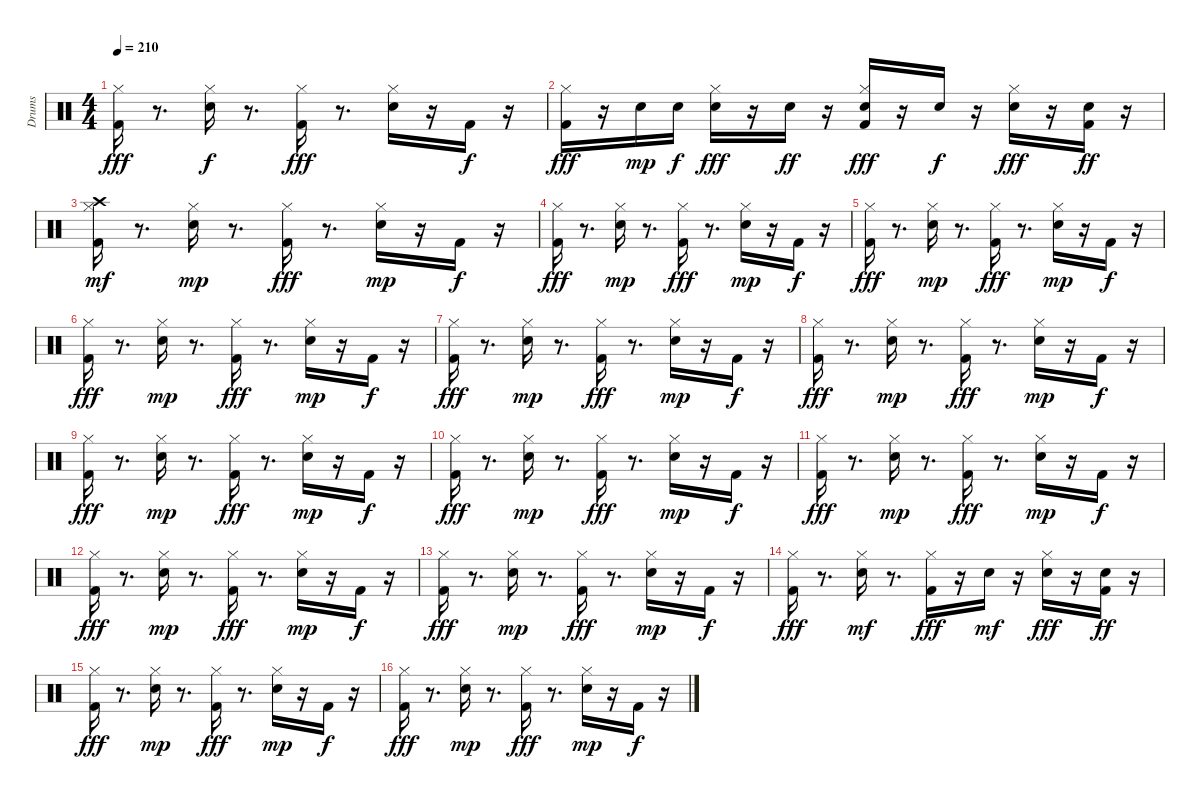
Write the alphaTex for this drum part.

\track ("Drums " "Drums ") {instrument percussion}
\staff {score}
\articulation defaults
\ts (4 4)
\tempo 210
\clef neutral
\ks c
("Kick (hit) 2" "Hi-Hat (closed)").16{dy fff} r.8{d} ("Snare (hit) 2" "Hi-Hat (closed)").16{dy f} r.8{d} ("Kick (hit) 2" "Hi-Hat (closed)").16{dy fff} r.8{d} ("Snare (hit) 2" "Hi-Hat (closed)").16 r.16 "Kick (hit) 2".16{dy f} r.16 |
("Kick (hit) 2" "Hi-Hat (closed)").16{dy fff} r.16 "Snare (hit) 2".16{dy mp} "Snare (hit) 2".16{dy f} ("Snare (hit) 2" "Hi-Hat (closed)").16{dy fff} r.16 "Snare (hit) 2".16{dy ff} r.16 ("Kick (hit) 2" "Snare (hit) 2" "Hi-Hat (closed)").16{dy fff} r.16 "Snare (hit) 2".16{dy f} r.16 ("Snare (hit) 2" "Hi-Hat (closed)").16{dy fff} r.16 ("Kick (hit) 2" "Snare (hit) 2").16{dy ff} r.16 |
("Kick (hit) 2" "Hi-Hat (closed)" "Crash high (hit)").16{dy mf} r.8{d} ("Snare (hit) 2" "Hi-Hat (closed)").16{dy mp} r.8{d} ("Kick (hit) 2" "Hi-Hat (closed)").16{dy fff} r.8{d} ("Snare (hit) 2" "Hi-Hat (closed)").16{dy mp} r.16 "Kick (hit) 2".16{dy f} r.16 |
("Kick (hit) 2" "Hi-Hat (closed)").16{dy fff} r.8{d} ("Snare (hit) 2" "Hi-Hat (closed)").16{dy mp} r.8{d} ("Kick (hit) 2" "Hi-Hat (closed)").16{dy fff} r.8{d} ("Snare (hit) 2" "Hi-Hat (closed)").16{dy mp} r.16 "Kick (hit) 2".16{dy f} r.16 |
("Kick (hit) 2" "Hi-Hat (closed)").16{dy fff} r.8{d} ("Snare (hit) 2" "Hi-Hat (closed)").16{dy mp} r.8{d} ("Kick (hit) 2" "Hi-Hat (closed)").16{dy fff} r.8{d} ("Snare (hit) 2" "Hi-Hat (closed)").16{dy mp} r.16 "Kick (hit) 2".16{dy f} r.16 |
("Kick (hit) 2" "Hi-Hat (closed)").16{dy fff} r.8{d} ("Snare (hit) 2" "Hi-Hat (closed)").16{dy mp} r.8{d} ("Kick (hit) 2" "Hi-Hat (closed)").16{dy fff} r.8{d} ("Snare (hit) 2" "Hi-Hat (closed)").16{dy mp} r.16 "Kick (hit) 2".16{dy f} r.16 |
("Kick (hit) 2" "Hi-Hat (closed)").16{dy fff} r.8{d} ("Snare (hit) 2" "Hi-Hat (closed)").16{dy mp} r.8{d} ("Kick (hit) 2" "Hi-Hat (closed)").16{dy fff} r.8{d} ("Snare (hit) 2" "Hi-Hat (closed)").16{dy mp} r.16 "Kick (hit) 2".16{dy f} r.16 |
("Kick (hit) 2" "Hi-Hat (closed)").16{dy fff} r.8{d} ("Snare (hit) 2" "Hi-Hat (closed)").16{dy mp} r.8{d} ("Kick (hit) 2" "Hi-Hat (closed)").16{dy fff} r.8{d} ("Snare (hit) 2" "Hi-Hat (closed)").16{dy mp} r.16 "Kick (hit) 2".16{dy f} r.16 |
("Kick (hit) 2" "Hi-Hat (closed)").16{dy fff} r.8{d} ("Snare (hit) 2" "Hi-Hat (closed)").16{dy mp} r.8{d} ("Kick (hit) 2" "Hi-Hat (closed)").16{dy fff} r.8{d} ("Snare (hit) 2" "Hi-Hat (closed)").16{dy mp} r.16 "Kick (hit) 2".16{dy f} r.16 |
("Kick (hit) 2" "Hi-Hat (closed)").16{dy fff} r.8{d} ("Snare (hit) 2" "Hi-Hat (closed)").16{dy mp} r.8{d} ("Kick (hit) 2" "Hi-Hat (closed)").16{dy fff} r.8{d} ("Snare (hit) 2" "Hi-Hat (closed)").16{dy mp} r.16 "Kick (hit) 2".16{dy f} r.16 |
("Kick (hit) 2" "Hi-Hat (closed)").16{dy fff} r.8{d} ("Snare (hit) 2" "Hi-Hat (closed)").16{dy mp} r.8{d} ("Kick (hit) 2" "Hi-Hat (closed)").16{dy fff} r.8{d} ("Snare (hit) 2" "Hi-Hat (closed)").16{dy mp} r.16 "Kick (hit) 2".16{dy f} r.16 |
("Kick (hit) 2" "Hi-Hat (closed)").16{dy fff} r.8{d} ("Snare (hit) 2" "Hi-Hat (closed)").16{dy mp} r.8{d} ("Kick (hit) 2" "Hi-Hat (closed)").16{dy fff} r.8{d} ("Snare (hit) 2" "Hi-Hat (closed)").16{dy mp} r.16 "Kick (hit) 2".16{dy f} r.16 |
("Kick (hit) 2" "Hi-Hat (closed)").16{dy fff} r.8{d} ("Snare (hit) 2" "Hi-Hat (closed)").16{dy mp} r.8{d} ("Kick (hit) 2" "Hi-Hat (closed)").16{dy fff} r.8{d} ("Snare (hit) 2" "Hi-Hat (closed)").16{dy mp} r.16 "Kick (hit) 2".16{dy f} r.16 |
("Kick (hit) 2" "Hi-Hat (closed)").16{dy fff} r.8{d} ("Snare (hit) 2" "Hi-Hat (closed)").16{dy mf} r.8{d} ("Kick (hit) 2" "Hi-Hat (closed)").16{dy fff} r.16 "Snare (hit) 2".16{dy mf} r.16 ("Snare (hit) 2" "Hi-Hat (closed)").16{dy fff} r.16 ("Kick (hit) 2" "Snare (hit) 2").16{dy ff} r.16 |
("Kick (hit) 2" "Hi-Hat (closed)").16{dy fff} r.8{d} ("Snare (hit) 2" "Hi-Hat (closed)").16{dy mp} r.8{d} ("Kick (hit) 2" "Hi-Hat (closed)").16{dy fff} r.8{d} ("Snare (hit) 2" "Hi-Hat (closed)").16{dy mp} r.16 "Kick (hit) 2".16{dy f} r.16 |
("Kick (hit) 2" "Hi-Hat (closed)").16{dy fff} r.8{d} ("Snare (hit) 2" "Hi-Hat (closed)").16{dy mp} r.8{d} ("Kick (hit) 2" "Hi-Hat (closed)").16{dy fff} r.8{d} ("Snare (hit) 2" "Hi-Hat (closed)").16{dy mp} r.16 "Kick (hit) 2".16{dy f} r.16
